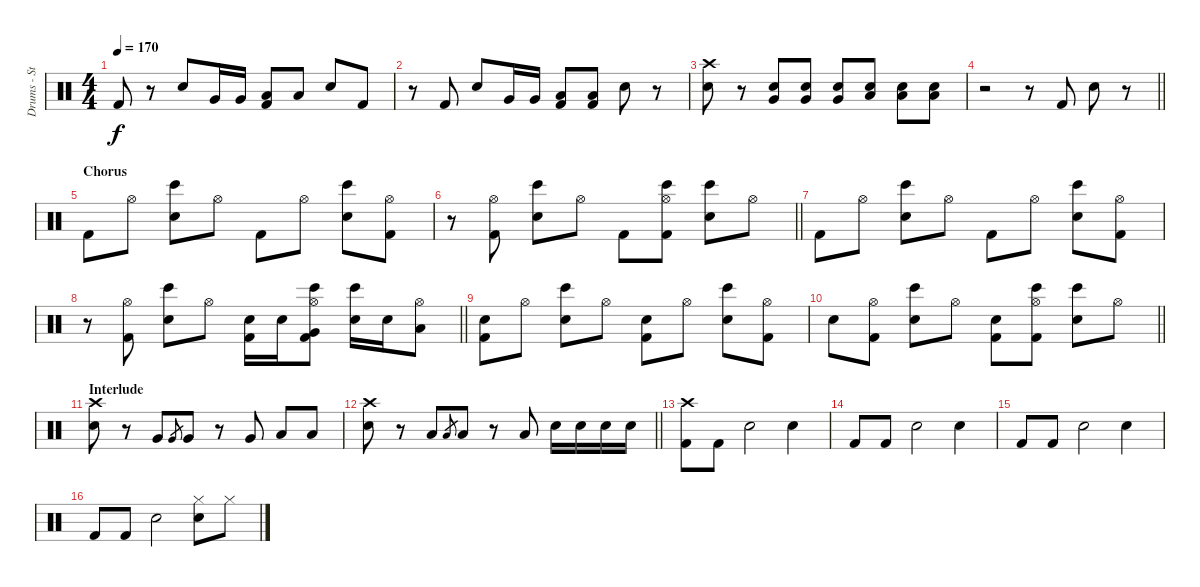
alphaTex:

\track ("Drums - Steeve" "Drums - St") {instrument percussion}
\staff {score}
\articulation defaults
\ts (4 4)
\tempo 170
\clef neutral
\ks c "Kick (hit) 2".8{dy f}
r.8 "Electric Snare (hit)".8 "Very Low Tom (hit)".16 "Very Low Tom (hit)".16 ("Kick (hit) 2" "Low Floor Tom (hit)").8 "Low Floor Tom (hit)".8 "Electric Snare (hit)".8 "Kick (hit) 2".8 |
r.8 "Kick (hit) 2".8 "Electric Snare (hit)".8 "Very Low Tom (hit)".16 "Very Low Tom (hit)".16 ("Kick (hit) 2" "Low Floor Tom (hit)").8 ("Kick (hit) 2" "Low Floor Tom (hit)").8 "Electric Snare (hit)".8 r.8 |
("Crash high (hit)" "Electric Snare (hit)").8 r.8 ("Electric Snare (hit)" "Very Low Tom (hit)").8 ("Electric Snare (hit)" "Very Low Tom (hit)").8 ("Electric Snare (hit)" "Very Low Tom (hit)").8 ("Electric Snare (hit)" "Low Floor Tom (hit)").8 ("Electric Snare (hit)" "Low Floor Tom (hit)").8 ("Electric Snare (hit)" "Low Floor Tom (hit)").8 |
\barLineRight lightlight
r.2 r.8 "Kick (hit) 2".8 "Electric Snare (hit)".8 r.8 |
\section ("" "Chorus")
"Kick (hit) 2".8 "Hi-Hat (open)".8 ("Electric Snare (hit)" "Bongo High (hit)").8 "Hi-Hat (open)".8 "Kick (hit) 2".8 "Hi-Hat (open)".8 ("Electric Snare (hit)" "Bongo High (hit)").8 ("Hi-Hat (open)" "Kick (hit) 2").8 |
\barLineRight lightlight
r.8 ("Hi-Hat (open)" "Kick (hit) 2").8 ("Electric Snare (hit)" "Bongo High (hit)").8 "Hi-Hat (open)".8 "Kick (hit) 2".8 ("Hi-Hat (open)" "Kick (hit) 2" "Bongo High (hit)").8 ("Electric Snare (hit)" "Bongo High (hit)").8 "Hi-Hat (open)".8 |
"Kick (hit) 2".8 "Hi-Hat (open)".8 ("Electric Snare (hit)" "Bongo High (hit)").8 "Hi-Hat (open)".8 "Kick (hit) 2".8 "Hi-Hat (open)".8 ("Electric Snare (hit)" "Bongo High (hit)").8 ("Hi-Hat (open)" "Kick (hit) 2").8 |
\barLineRight lightlight
r.8 ("Hi-Hat (open)" "Kick (hit) 2").8 ("Electric Snare (hit)" "Bongo High (hit)").8 "Hi-Hat (open)".8 ("Kick (hit) 2" "Electric Snare (hit)").16 "Electric Snare (hit)".16 ("Hi-Hat (open)" "Kick (hit) 2" "Very Low Tom (hit)" "Bongo High (hit)").8 ("Electric Snare (hit)" "Bongo High (hit)").16 "Electric Snare (hit)".16 ("Hi-Hat (open)" "Low Floor Tom (hit)").8 |
("Kick (hit) 2" "Electric Snare (hit)").8 "Hi-Hat (open)".8 ("Electric Snare (hit)" "Bongo High (hit)").8 "Hi-Hat (open)".8 ("Kick (hit) 2" "Electric Snare (hit)").8 "Hi-Hat (open)".8 ("Electric Snare (hit)" "Bongo High (hit)").8 ("Hi-Hat (open)" "Kick (hit) 2").8 |
\barLineRight lightlight "Electric Snare (hit)".8
("Hi-Hat (open)" "Kick (hit) 2").8 ("Electric Snare (hit)" "Bongo High (hit)").8 "Hi-Hat (open)".8 ("Kick (hit) 2" "Electric Snare (hit)").8 ("Hi-Hat (open)" "Kick (hit) 2" "Bongo High (hit)").8 ("Electric Snare (hit)" "Bongo High (hit)").8 "Hi-Hat (open)".8 |
\section ("" "Interlude")
("Crash high (hit)" "Electric Snare (hit)").8 r.8 "Very Low Tom (hit)".8 "Very Low Tom (hit)".8{gr} "Very Low Tom (hit)".8 r.8 "Very Low Tom (hit)".8 "Low Floor Tom (hit)".8 "Low Floor Tom (hit)".8 |
\barLineRight lightlight
("Crash high (hit)" "Electric Snare (hit)").8 r.8 "Low Tom (hit)".8 "Low Tom (hit)".8{gr} "Low Tom (hit)".8 r.8 "Low Tom (hit)".8 "Electric Snare (hit)".16 "Electric Snare (hit)".16 "Electric Snare (hit)".16 "Electric Snare (hit)".16 |
("Crash high (hit)" "Kick (hit) 2").8 "Kick (hit) 2".8 "Electric Snare (hit)".2 "Electric Snare (hit)".4 |
"Kick (hit) 2".8 "Kick (hit) 2".8 "Electric Snare (hit)".2 "Electric Snare (hit)".4 |
"Kick (hit) 2".8 "Kick (hit) 2".8 "Electric Snare (hit)".2 "Electric Snare (hit)".4 |
"Kick (hit) 2".8 "Kick (hit) 2".8 "Electric Snare (hit)".2 ("Hi-Hat (closed)" "Electric Snare (hit)").8 "Hi-Hat (closed)".8
